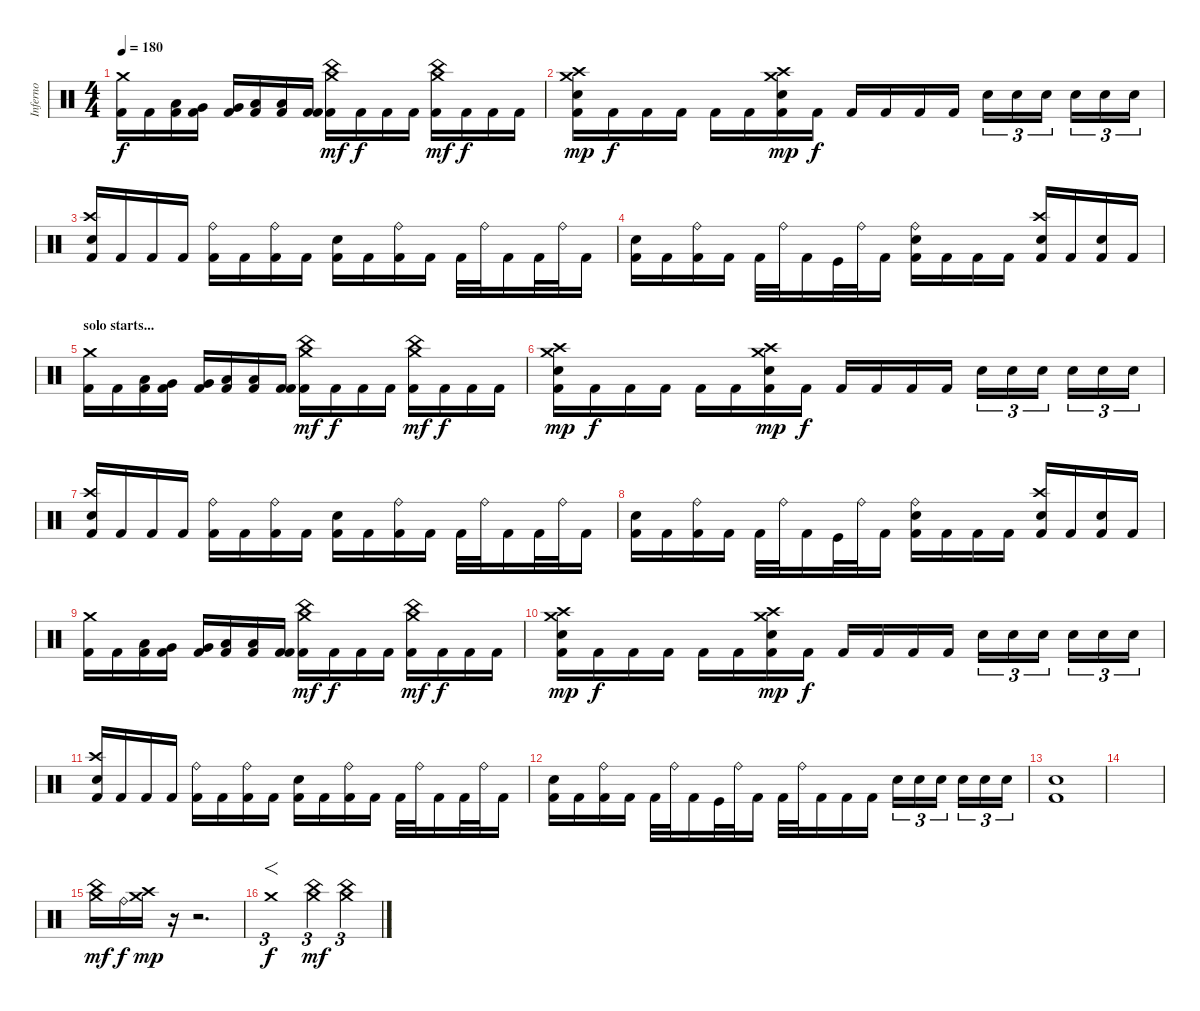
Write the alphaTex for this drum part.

\track ("Inferno" "Inferno") {instrument percussion}
\staff {score}
\articulation defaults
\ts (4 4)
\tempo 180
\clef neutral
\ks c
("Crash medium (hit)" "Kick (hit) 2").16{dy f} "Kick (hit) 2".16 ("Low Tom (hit)" "Kick (hit) 2").16 ("Very Low Tom (hit)" "Kick (hit) 2").16 ("Very Low Tom (hit)" "Kick (hit) 2").16 ("Low Floor Tom (hit)" "Kick (hit) 2").16 ("Low Floor Tom (hit)" "Kick (hit) 2").16 ("Kick (hit) 2" "Kick (hit) 2").16 ("Crash medium (hit)" "China (hit)" "Kick (hit) 2").16{dy mf} "Kick (hit) 2".16{dy f} "Kick (hit) 2".16 "Kick (hit) 2".16 ("Crash medium (hit)" "China (hit)" "Kick (hit) 2").16{dy mf} "Kick (hit) 2".16{dy f} "Kick (hit) 2".16 "Kick (hit) 2".16 |
("Crash medium (hit)" "Crash high (hit)" "Snare (hit) 2" "Kick (hit) 2").16{dy mp} "Kick (hit) 2".16{dy f} "Kick (hit) 2".16 "Kick (hit) 2".16 "Kick (hit) 2".16 "Kick (hit) 2".16 ("Crash medium (hit)" "Crash high (hit)" "Snare (hit) 2" "Kick (hit) 2").16{dy mp} "Kick (hit) 2".16{dy f} "Kick (hit) 2".16 "Kick (hit) 2".16 "Kick (hit) 2".16 "Kick (hit) 2".16 "Snare (hit) 2".16{tu (3 2)} "Snare (hit) 2".16{tu (3 2)} "Snare (hit) 2".16{tu (3 2)} "Snare (hit) 2".16{tu (3 2)} "Snare (hit) 2".16{tu (3 2)} "Snare (hit) 2".16{tu (3 2)} |
("Crash high (hit)" "Snare (hit) 2" "Kick (hit) 2").16 "Kick (hit) 2".16 "Kick (hit) 2".16 "Kick (hit) 2".16 ("Ride (bell)" "Kick (hit) 2").16 "Kick (hit) 2".16 ("Ride (bell)" "Kick (hit) 2").16 "Kick (hit) 2".16 ("Snare (hit) 2" "Kick (hit) 2").16 "Kick (hit) 2".16 ("Ride (bell)" "Kick (hit) 2").16 "Kick (hit) 2".16 "Kick (hit) 2".32 "Ride (bell)".32 "Kick (hit) 2".16 "Kick (hit) 2".32 "Ride (bell)".32 "Kick (hit) 2".16 |
("Snare (hit) 2" "Kick (hit) 2").16 "Kick (hit) 2".16 ("Ride (bell)" "Kick (hit) 2").16 "Kick (hit) 2".16 "Kick (hit) 2".32 "Ride (bell)".32 "Kick (hit) 2".16 "Kick (hit)".32 "Ride (bell)".32 "Kick (hit) 2".16 ("Ride (bell)" "Snare (hit) 2" "Kick (hit) 2").16 "Kick (hit) 2".16 "Kick (hit) 2".16 "Kick (hit) 2".16 ("Crash high (hit)" "Snare (hit) 2" "Kick (hit) 2").16 "Kick (hit) 2".16 ("Snare (hit) 2" "Kick (hit) 2").16 "Kick (hit) 2".16 |
\section ("" "solo starts...")
("Crash medium (hit)" "Kick (hit) 2").16 "Kick (hit) 2".16 ("Low Tom (hit)" "Kick (hit) 2").16 ("Very Low Tom (hit)" "Kick (hit) 2").16 ("Very Low Tom (hit)" "Kick (hit) 2").16 ("Low Floor Tom (hit)" "Kick (hit) 2").16 ("Low Floor Tom (hit)" "Kick (hit) 2").16 ("Kick (hit) 2" "Kick (hit) 2").16 ("Crash medium (hit)" "China (hit)" "Kick (hit) 2").16{dy mf} "Kick (hit) 2".16{dy f} "Kick (hit) 2".16 "Kick (hit) 2".16 ("Crash medium (hit)" "China (hit)" "Kick (hit) 2").16{dy mf} "Kick (hit) 2".16{dy f} "Kick (hit) 2".16 "Kick (hit) 2".16 |
("Crash medium (hit)" "Crash high (hit)" "Snare (hit) 2" "Kick (hit) 2").16{dy mp} "Kick (hit) 2".16{dy f} "Kick (hit) 2".16 "Kick (hit) 2".16 "Kick (hit) 2".16 "Kick (hit) 2".16 ("Crash medium (hit)" "Crash high (hit)" "Snare (hit) 2" "Kick (hit) 2").16{dy mp} "Kick (hit) 2".16{dy f} "Kick (hit) 2".16 "Kick (hit) 2".16 "Kick (hit) 2".16 "Kick (hit) 2".16 "Snare (hit) 2".16{tu (3 2)} "Snare (hit) 2".16{tu (3 2)} "Snare (hit) 2".16{tu (3 2)} "Snare (hit) 2".16{tu (3 2)} "Snare (hit) 2".16{tu (3 2)} "Snare (hit) 2".16{tu (3 2)} |
("Crash high (hit)" "Snare (hit) 2" "Kick (hit) 2").16 "Kick (hit) 2".16 "Kick (hit) 2".16 "Kick (hit) 2".16 ("Ride (bell)" "Kick (hit) 2").16 "Kick (hit) 2".16 ("Ride (bell)" "Kick (hit) 2").16 "Kick (hit) 2".16 ("Snare (hit) 2" "Kick (hit) 2").16 "Kick (hit) 2".16 ("Ride (bell)" "Kick (hit) 2").16 "Kick (hit) 2".16 "Kick (hit) 2".32 "Ride (bell)".32 "Kick (hit) 2".16 "Kick (hit) 2".32 "Ride (bell)".32 "Kick (hit) 2".16 |
("Snare (hit) 2" "Kick (hit) 2").16 "Kick (hit) 2".16 ("Ride (bell)" "Kick (hit) 2").16 "Kick (hit) 2".16 "Kick (hit) 2".32 "Ride (bell)".32 "Kick (hit) 2".16 "Kick (hit)".32 "Ride (bell)".32 "Kick (hit) 2".16 ("Ride (bell)" "Snare (hit) 2" "Kick (hit) 2").16 "Kick (hit) 2".16 "Kick (hit) 2".16 "Kick (hit) 2".16 ("Crash high (hit)" "Snare (hit) 2" "Kick (hit) 2").16 "Kick (hit) 2".16 ("Snare (hit) 2" "Kick (hit) 2").16 "Kick (hit) 2".16 |
("Crash medium (hit)" "Kick (hit) 2").16 "Kick (hit) 2".16 ("Low Tom (hit)" "Kick (hit) 2").16 ("Very Low Tom (hit)" "Kick (hit) 2").16 ("Very Low Tom (hit)" "Kick (hit) 2").16 ("Low Floor Tom (hit)" "Kick (hit) 2").16 ("Low Floor Tom (hit)" "Kick (hit) 2").16 ("Kick (hit) 2" "Kick (hit) 2").16 ("Crash medium (hit)" "China (hit)" "Kick (hit) 2").16{dy mf} "Kick (hit) 2".16{dy f} "Kick (hit) 2".16 "Kick (hit) 2".16 ("Crash medium (hit)" "China (hit)" "Kick (hit) 2").16{dy mf} "Kick (hit) 2".16{dy f} "Kick (hit) 2".16 "Kick (hit) 2".16 |
("Crash medium (hit)" "Crash high (hit)" "Snare (hit) 2" "Kick (hit) 2").16{dy mp} "Kick (hit) 2".16{dy f} "Kick (hit) 2".16 "Kick (hit) 2".16 "Kick (hit) 2".16 "Kick (hit) 2".16 ("Crash medium (hit)" "Crash high (hit)" "Snare (hit) 2" "Kick (hit) 2").16{dy mp} "Kick (hit) 2".16{dy f} "Kick (hit) 2".16 "Kick (hit) 2".16 "Kick (hit) 2".16 "Kick (hit) 2".16 "Snare (hit) 2".16{tu (3 2)} "Snare (hit) 2".16{tu (3 2)} "Snare (hit) 2".16{tu (3 2)} "Snare (hit) 2".16{tu (3 2)} "Snare (hit) 2".16{tu (3 2)} "Snare (hit) 2".16{tu (3 2)} |
("Crash high (hit)" "Snare (hit) 2" "Kick (hit) 2").16 "Kick (hit) 2".16 "Kick (hit) 2".16 "Kick (hit) 2".16 ("Ride (bell)" "Kick (hit) 2").16 "Kick (hit) 2".16 ("Ride (bell)" "Kick (hit) 2").16 "Kick (hit) 2".16 ("Snare (hit) 2" "Kick (hit) 2").16 "Kick (hit) 2".16 ("Ride (bell)" "Kick (hit) 2").16 "Kick (hit) 2".16 "Kick (hit) 2".32 "Ride (bell)".32 "Kick (hit) 2".16 "Kick (hit) 2".32 "Ride (bell)".32 "Kick (hit) 2".16 |
("Snare (hit) 2" "Kick (hit) 2").16 "Kick (hit) 2".16 ("Ride (bell)" "Kick (hit) 2").16 "Kick (hit) 2".16 "Kick (hit) 2".32 "Ride (bell)".32 "Kick (hit) 2".16 "Kick (hit)".32 "Ride (bell)".32 "Kick (hit) 2".16 "Kick (hit) 2".32 "Ride (bell)".32 "Kick (hit) 2".16 "Kick (hit) 2".16 "Kick (hit) 2".16 "Snare (hit) 2".16{tu (3 2)} "Snare (hit) 2".16{tu (3 2)} "Snare (hit) 2".16{tu (3 2)} "Snare (hit) 2".16{tu (3 2)} "Snare (hit) 2".16{tu (3 2)} "Snare (hit) 2".16{tu (3 2)} |
("Snare (hit) 2" "Kick (hit) 2").1 |
|
("Crash medium (hit)" "China (hit)").16{dy mf} "Ride (bell)".16{dy f} ("Crash medium (hit)" "Crash high (hit)").16{dy mp} r.16 r.2{d} |
"Crash medium (hit)".1{f tu (3 2) dy f} ("Crash medium (hit)" "China (hit)").4{tu (3 2) dy mf} ("Crash medium (hit)" "China (hit)").4{tu (3 2)}
